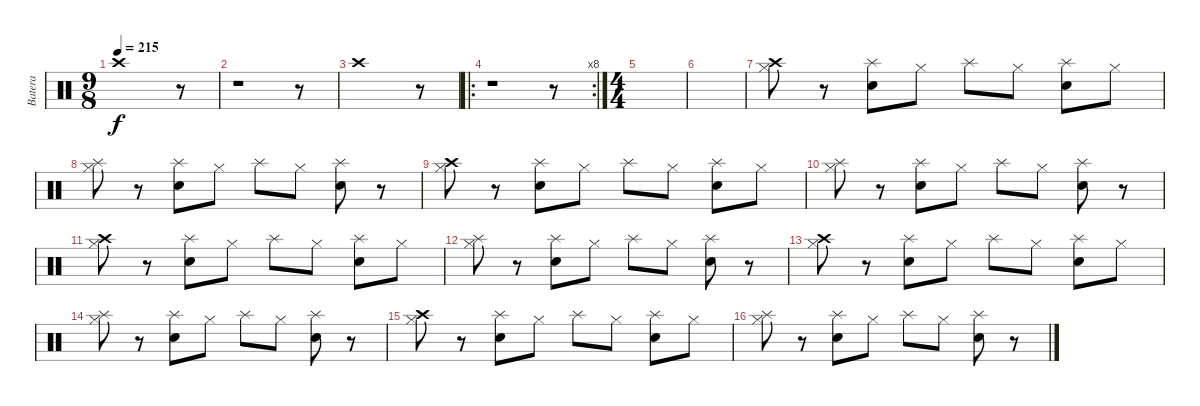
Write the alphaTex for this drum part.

\track ("Batera" "Batera") {instrument percussion}
\staff {score}
\articulation defaults
\ts (9 8)
\tempo 215
\clef neutral
\ks c "Crash high (hit)".1{dy f}
r.8 |
r.1 r.8 |
"Crash high (hit)".1 r.8 |
\ro
\rc 8
r.1 r.8 |
\ts (4 4)
|
|
("Crash high (hit)" "Hi-Hat (closed)").8 r.8 ("Splash (hit)" "Electric Snare (hit)").8 "Hi-Hat (closed)".8 "Splash (hit)".8 "Hi-Hat (closed)".8 ("Splash (hit)" "Electric Snare (hit)").8 "Hi-Hat (closed)".8 |
("Splash (hit)" "Hi-Hat (closed)").8 r.8 ("Splash (hit)" "Electric Snare (hit)").8 "Hi-Hat (closed)".8 "Splash (hit)".8 "Hi-Hat (closed)".8 ("Splash (hit)" "Electric Snare (hit)").8 r.8 |
("Crash high (hit)" "Hi-Hat (closed)").8 r.8 ("Splash (hit)" "Electric Snare (hit)").8 "Hi-Hat (closed)".8 "Splash (hit)".8 "Hi-Hat (closed)".8 ("Splash (hit)" "Electric Snare (hit)").8 "Hi-Hat (closed)".8 |
("Splash (hit)" "Hi-Hat (closed)").8 r.8 ("Splash (hit)" "Electric Snare (hit)").8 "Hi-Hat (closed)".8 "Splash (hit)".8 "Hi-Hat (closed)".8 ("Splash (hit)" "Electric Snare (hit)").8 r.8 |
("Crash high (hit)" "Hi-Hat (closed)").8 r.8 ("Splash (hit)" "Electric Snare (hit)").8 "Hi-Hat (closed)".8 "Splash (hit)".8 "Hi-Hat (closed)".8 ("Splash (hit)" "Electric Snare (hit)").8 "Hi-Hat (closed)".8 |
("Splash (hit)" "Hi-Hat (closed)").8 r.8 ("Splash (hit)" "Electric Snare (hit)").8 "Hi-Hat (closed)".8 "Splash (hit)".8 "Hi-Hat (closed)".8 ("Splash (hit)" "Electric Snare (hit)").8 r.8 |
("Crash high (hit)" "Hi-Hat (closed)").8 r.8 ("Splash (hit)" "Electric Snare (hit)").8 "Hi-Hat (closed)".8 "Splash (hit)".8 "Hi-Hat (closed)".8 ("Splash (hit)" "Electric Snare (hit)").8 "Hi-Hat (closed)".8 |
("Splash (hit)" "Hi-Hat (closed)").8 r.8 ("Splash (hit)" "Electric Snare (hit)").8 "Hi-Hat (closed)".8 "Splash (hit)".8 "Hi-Hat (closed)".8 ("Splash (hit)" "Electric Snare (hit)").8 r.8 |
("Crash high (hit)" "Hi-Hat (closed)").8 r.8 ("Splash (hit)" "Electric Snare (hit)").8 "Hi-Hat (closed)".8 "Splash (hit)".8 "Hi-Hat (closed)".8 ("Splash (hit)" "Electric Snare (hit)").8 "Hi-Hat (closed)".8 |
("Splash (hit)" "Hi-Hat (closed)").8 r.8 ("Splash (hit)" "Electric Snare (hit)").8 "Hi-Hat (closed)".8 "Splash (hit)".8 "Hi-Hat (closed)".8 ("Splash (hit)" "Electric Snare (hit)").8 r.8
